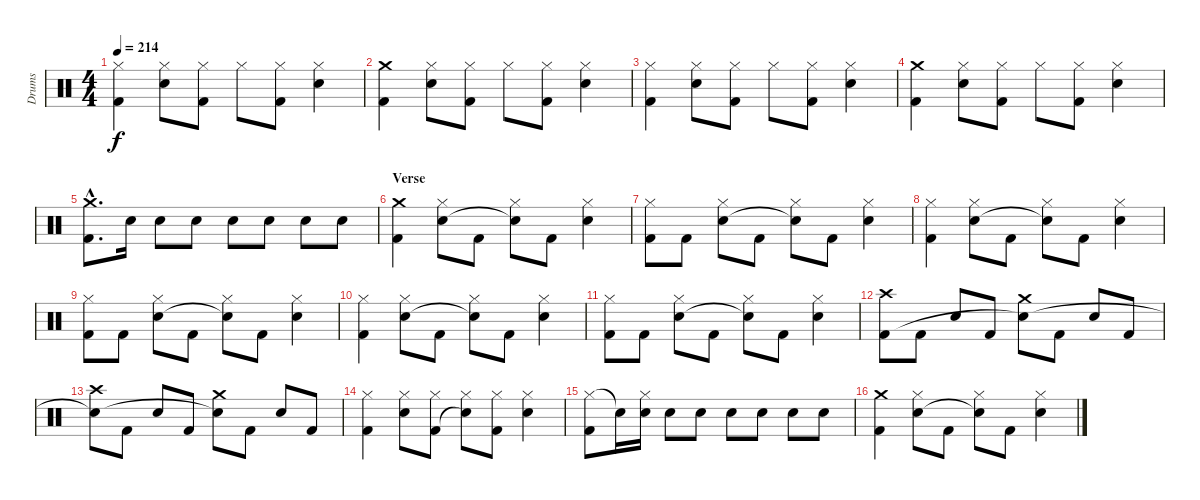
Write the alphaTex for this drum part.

\track ("Drums" "Drums") {instrument percussion}
\staff {score}
\articulation defaults
\ts (4 4)
\tempo 214
\clef neutral
\ks c
("Hi-Hat (closed)" "Kick (hit) 2").4{dy f} ("Hi-Hat (closed)" "Electric Snare (hit)").8 ("Hi-Hat (closed)" "Kick (hit) 2").8 "Hi-Hat (closed)".8 ("Hi-Hat (closed)" "Kick (hit) 2").8 ("Hi-Hat (closed)" "Electric Snare (hit)").4 |
("Crash medium (hit)" "Kick (hit) 2").4 ("Hi-Hat (closed)" "Electric Snare (hit)").8 ("Hi-Hat (closed)" "Kick (hit) 2").8 "Hi-Hat (closed)".8 ("Hi-Hat (closed)" "Kick (hit) 2").8 ("Hi-Hat (closed)" "Electric Snare (hit)").4 |
("Hi-Hat (closed)" "Kick (hit) 2").4 ("Hi-Hat (closed)" "Electric Snare (hit)").8 ("Hi-Hat (closed)" "Kick (hit) 2").8 "Hi-Hat (closed)".8 ("Hi-Hat (closed)" "Kick (hit) 2").8 ("Hi-Hat (closed)" "Electric Snare (hit)").4 |
("Crash medium (hit)" "Kick (hit) 2").4 ("Hi-Hat (closed)" "Electric Snare (hit)").8 ("Hi-Hat (closed)" "Kick (hit) 2").8 "Hi-Hat (closed)".8 ("Hi-Hat (closed)" "Kick (hit) 2").8 ("Hi-Hat (closed)" "Electric Snare (hit)").4 |
("Crash medium (hit)"{hac} "Kick (hit) 2"{hac}).8{d} "Electric Snare (hit)".16 "Electric Snare (hit)".8 "Electric Snare (hit)".8 "Electric Snare (hit)".8 "Electric Snare (hit)".8 "Electric Snare (hit)".8 "Electric Snare (hit)".8 |
\section ("" "Verse")
("Crash medium (hit)" "Kick (hit) 2").4 ("Hi-Hat (closed)" "Electric Snare (hit)").8 "Kick (hit) 2".8 ("Hi-Hat (closed)" "Snare (hit)"{t}).8 "Kick (hit) 2".8 ("Hi-Hat (closed)" "Electric Snare (hit)").4 |
("Hi-Hat (closed)" "Kick (hit) 2").8 "Kick (hit) 2".8 ("Hi-Hat (closed)" "Electric Snare (hit)").8 "Kick (hit) 2".8 ("Hi-Hat (closed)" "Snare (hit)"{t}).8 "Kick (hit) 2".8 ("Hi-Hat (closed)" "Electric Snare (hit)").4 |
("Hi-Hat (closed)" "Kick (hit) 2").4 ("Hi-Hat (closed)" "Electric Snare (hit)").8 "Kick (hit) 2".8 ("Hi-Hat (closed)" "Snare (hit)"{t}).8 "Kick (hit) 2".8 ("Hi-Hat (closed)" "Electric Snare (hit)").4 |
("Hi-Hat (closed)" "Kick (hit) 2").8 "Kick (hit) 2".8 ("Hi-Hat (closed)" "Electric Snare (hit)").8 "Kick (hit) 2".8 ("Hi-Hat (closed)" "Snare (hit)"{t}).8 "Kick (hit) 2".8 ("Hi-Hat (closed)" "Electric Snare (hit)").4 |
("Hi-Hat (closed)" "Kick (hit) 2").4 ("Hi-Hat (closed)" "Electric Snare (hit)").8 "Kick (hit) 2".8 ("Hi-Hat (closed)" "Snare (hit)"{t}).8 "Kick (hit) 2".8 ("Hi-Hat (closed)" "Electric Snare (hit)").4 |
("Hi-Hat (closed)" "Kick (hit) 2").8 "Kick (hit) 2".8 ("Hi-Hat (closed)" "Electric Snare (hit)").8 "Kick (hit) 2".8 ("Hi-Hat (closed)" "Snare (hit)"{t}).8 "Kick (hit) 2".8 ("Hi-Hat (closed)" "Electric Snare (hit)").4 |
("Crash high (hit)" "Kick (hit) 2").8 "Kick (hit) 2".8 "Electric Snare (hit)".8 "Kick (hit) 2".8 ("Crash medium (hit)" "Snare (hit)"{t}).8 "Kick (hit) 2".8 "Electric Snare (hit)".8 "Kick (hit) 2".8 |
("Crash high (hit)" "Snare (hit)"{t}).8 "Kick (hit) 2".8 "Electric Snare (hit)".8 "Kick (hit) 2".8 ("Crash medium (hit)" "Snare (hit)"{t}).8 "Kick (hit) 2".8 "Electric Snare (hit)".8 "Kick (hit) 2".8 |
("Hi-Hat (closed)" "Kick (hit) 2").4 ("Hi-Hat (closed)" "Electric Snare (hit)").8 ("Hi-Hat (closed)" "Kick (hit) 2").8 ("Hi-Hat (closed)" "Snare (hit)"{t}).8 ("Hi-Hat (closed)" "Kick (hit) 2").8 ("Hi-Hat (closed)" "Electric Snare (hit)").4 |
("Hi-Hat (closed)" "Kick (hit) 2").8 "Snare (hit)"{t}.16 ("Hi-Hat (closed)" "Electric Snare (hit)").16 "Electric Snare (hit)".8 "Electric Snare (hit)".8 "Electric Snare (hit)".8 "Electric Snare (hit)".8 "Electric Snare (hit)".8 "Electric Snare (hit)".8 |
("Crash medium (hit)" "Kick (hit) 2").4 ("Hi-Hat (closed)" "Electric Snare (hit)").8 "Kick (hit) 2".8 ("Hi-Hat (closed)" "Snare (hit)"{t}).8 "Kick (hit) 2".8 ("Hi-Hat (closed)" "Electric Snare (hit)").4
